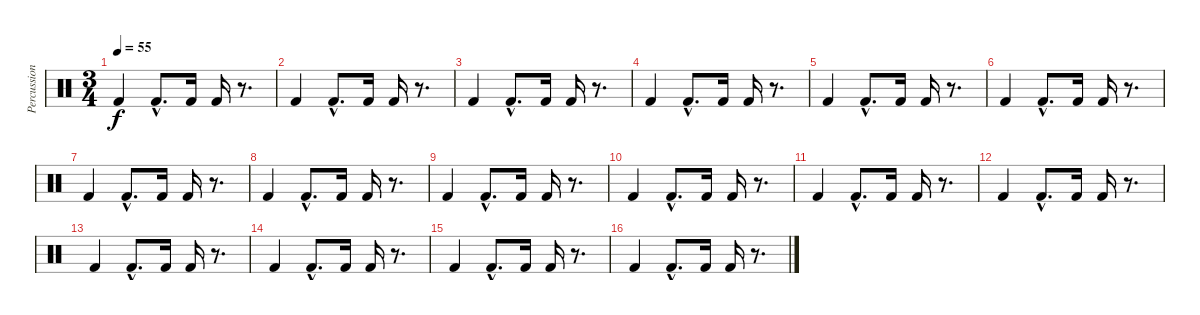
\track ("Percussion" "Percussion") {instrument percussion}
\staff {score}
\articulation defaults
\ts (3 4)
\tempo 55
\clef neutral
\ks c "Kick (hit) 2".4{dy f} "Kick (hit) 2"{hac}.8{d} "Kick (hit) 2".16 "Kick (hit) 2".16
r.8{d} |
"Kick (hit) 2".4 "Kick (hit) 2"{hac}.8{d} "Kick (hit) 2".16 "Kick (hit) 2".16 r.8{d} |
"Kick (hit) 2".4 "Kick (hit) 2"{hac}.8{d} "Kick (hit) 2".16 "Kick (hit) 2".16 r.8{d} |
"Kick (hit) 2".4 "Kick (hit) 2"{hac}.8{d} "Kick (hit) 2".16 "Kick (hit) 2".16 r.8{d} |
"Kick (hit) 2".4 "Kick (hit) 2"{hac}.8{d} "Kick (hit) 2".16 "Kick (hit) 2".16 r.8{d} |
"Kick (hit) 2".4 "Kick (hit) 2"{hac}.8{d} "Kick (hit) 2".16 "Kick (hit) 2".16 r.8{d} |
"Kick (hit) 2".4 "Kick (hit) 2"{hac}.8{d} "Kick (hit) 2".16 "Kick (hit) 2".16 r.8{d} |
"Kick (hit) 2".4 "Kick (hit) 2"{hac}.8{d} "Kick (hit) 2".16 "Kick (hit) 2".16 r.8{d} |
"Kick (hit) 2".4 "Kick (hit) 2"{hac}.8{d} "Kick (hit) 2".16 "Kick (hit) 2".16 r.8{d} |
"Kick (hit) 2".4 "Kick (hit) 2"{hac}.8{d} "Kick (hit) 2".16 "Kick (hit) 2".16 r.8{d} |
"Kick (hit) 2".4 "Kick (hit) 2"{hac}.8{d} "Kick (hit) 2".16 "Kick (hit) 2".16 r.8{d} |
"Kick (hit) 2".4 "Kick (hit) 2"{hac}.8{d} "Kick (hit) 2".16 "Kick (hit) 2".16 r.8{d} |
"Kick (hit) 2".4 "Kick (hit) 2"{hac}.8{d} "Kick (hit) 2".16 "Kick (hit) 2".16 r.8{d} |
"Kick (hit) 2".4 "Kick (hit) 2"{hac}.8{d} "Kick (hit) 2".16 "Kick (hit) 2".16 r.8{d} |
"Kick (hit) 2".4 "Kick (hit) 2"{hac}.8{d} "Kick (hit) 2".16 "Kick (hit) 2".16 r.8{d} |
"Kick (hit) 2".4 "Kick (hit) 2"{hac}.8{d} "Kick (hit) 2".16 "Kick (hit) 2".16 r.8{d}
